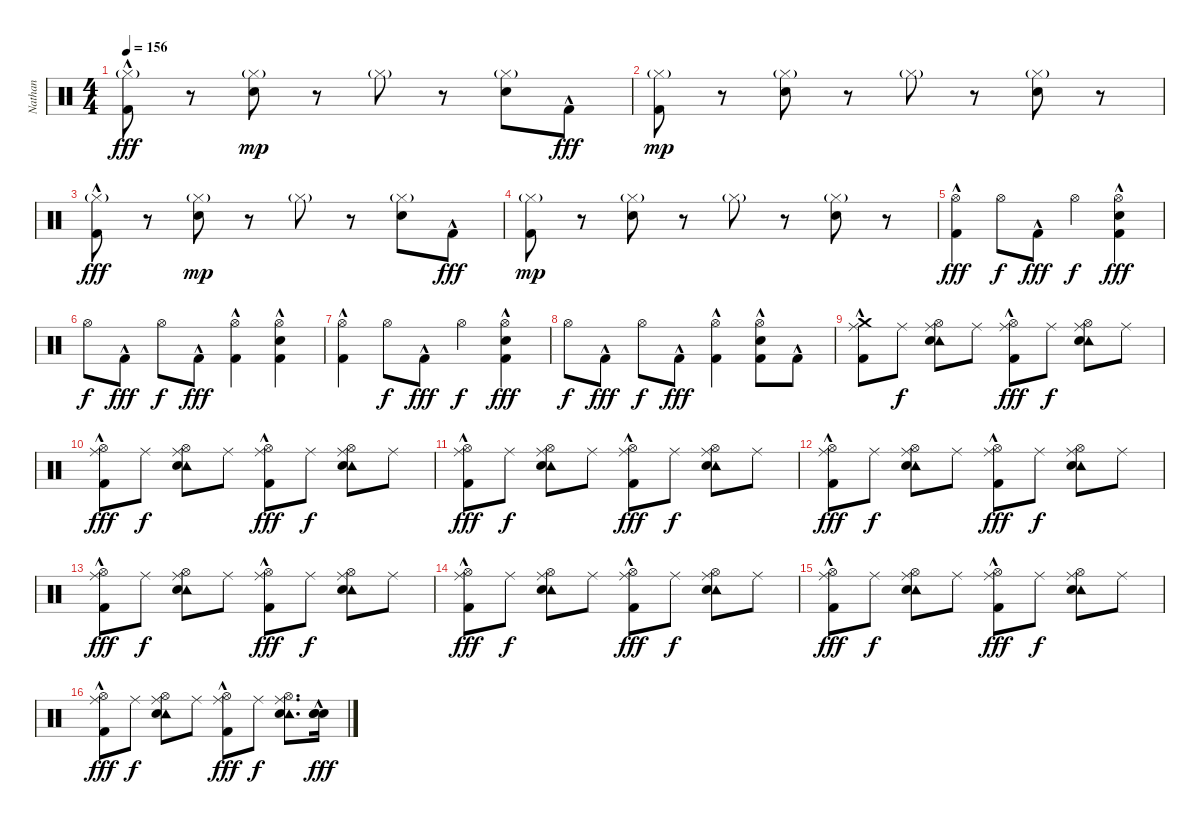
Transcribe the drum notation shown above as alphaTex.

\track ("Nathan" "Nathan") {instrument percussion}
\staff {score}
\articulation defaults
\ts (4 4)
\tempo 156
\clef neutral
\ks c
("Hi-Hat (closed)"{g} "Kick (hit) 2"{hac}).8{dy fff} r.8 ("Hi-Hat (closed)"{g} "Snare (hit) 2").8{dy mp} r.8 "Hi-Hat (closed)"{g}.8 r.8 ("Hi-Hat (closed)"{g} "Snare (hit) 2").8 "Kick (hit) 2"{hac}.8{dy fff} |
("Hi-Hat (closed)"{g} "Kick (hit) 2").8{dy mp} r.8 ("Hi-Hat (closed)"{g} "Snare (hit) 2").8 r.8 "Hi-Hat (closed)"{g}.8 r.8 ("Hi-Hat (closed)"{g} "Snare (hit) 2").8 r.8 |
("Hi-Hat (closed)"{g} "Kick (hit) 2"{hac}).8{dy fff} r.8 ("Hi-Hat (closed)"{g} "Snare (hit) 2").8{dy mp} r.8 "Hi-Hat (closed)"{g}.8 r.8 ("Hi-Hat (closed)"{g} "Snare (hit) 2").8 "Kick (hit) 2"{hac}.8{dy fff} |
("Hi-Hat (closed)"{g} "Kick (hit) 2").8{dy mp} r.8 ("Hi-Hat (closed)"{g} "Snare (hit) 2").8 r.8 "Hi-Hat (closed)"{g}.8 r.8 ("Hi-Hat (closed)"{g} "Snare (hit) 2").8 r.8 |
("Hi-Hat (open)" "Kick (hit) 2"{hac}).4{dy fff} "Hi-Hat (open)".8{dy f} "Kick (hit) 2"{hac}.8{dy fff} "Hi-Hat (open)".4{dy f} ("Hi-Hat (open)" "Snare (hit) 2"{hac} "Kick (hit) 2"{hac}).4{dy fff} |
"Hi-Hat (open)".8{dy f} "Kick (hit) 2"{hac}.8{dy fff} "Hi-Hat (open)".8{dy f} "Kick (hit) 2"{hac}.8{dy fff} ("Hi-Hat (open)" "Kick (hit) 2"{hac}).4 ("Hi-Hat (open)" "Snare (hit) 2"{hac} "Kick (hit) 2"{hac}).4 |
("Hi-Hat (open)" "Kick (hit) 2"{hac}).4 "Hi-Hat (open)".8{dy f} "Kick (hit) 2"{hac}.8{dy fff} "Hi-Hat (open)".4{dy f} ("Hi-Hat (open)" "Snare (hit) 2"{hac} "Kick (hit) 2"{hac}).4{dy fff} |
"Hi-Hat (open)".8{dy f} "Kick (hit) 2"{hac}.8{dy fff} "Hi-Hat (open)".8{dy f} "Kick (hit) 2"{hac}.8{dy fff} ("Hi-Hat (open)" "Kick (hit) 2"{hac}).4 ("Hi-Hat (open)" "Snare (hit) 2"{hac} "Kick (hit) 2"{hac}).8 "Kick (hit) 2"{hac}.8 |
("Crash medium (hit)" "Ride (middle)" "Kick (hit) 2"{hac}).8 "Ride (middle)".8{dy f} ("Hi-Hat (open)" "Ride (middle)" "Tambourine (hit)" "Snare (hit) 2").8 "Ride (middle)".8 ("Hi-Hat (open)" "Ride (middle)" "Kick (hit) 2"{hac}).8{dy fff} "Ride (middle)".8{dy f} ("Hi-Hat (open)" "Ride (middle)" "Tambourine (hit)" "Snare (hit) 2").8 "Ride (middle)".8 |
("Hi-Hat (open)" "Ride (middle)" "Kick (hit) 2"{hac}).8{dy fff} "Ride (middle)".8{dy f} ("Hi-Hat (open)" "Ride (middle)" "Tambourine (hit)" "Snare (hit) 2").8 "Ride (middle)".8 ("Hi-Hat (open)" "Ride (middle)" "Kick (hit) 2"{hac}).8{dy fff} "Ride (middle)".8{dy f} ("Hi-Hat (open)" "Ride (middle)" "Tambourine (hit)" "Snare (hit) 2").8 "Ride (middle)".8 |
("Hi-Hat (open)" "Ride (middle)" "Kick (hit) 2"{hac}).8{dy fff} "Ride (middle)".8{dy f} ("Hi-Hat (open)" "Ride (middle)" "Tambourine (hit)" "Snare (hit) 2").8 "Ride (middle)".8 ("Hi-Hat (open)" "Ride (middle)" "Kick (hit) 2"{hac}).8{dy fff} "Ride (middle)".8{dy f} ("Hi-Hat (open)" "Ride (middle)" "Tambourine (hit)" "Snare (hit) 2").8 "Ride (middle)".8 |
("Hi-Hat (open)" "Ride (middle)" "Kick (hit) 2"{hac}).8{dy fff} "Ride (middle)".8{dy f} ("Hi-Hat (open)" "Ride (middle)" "Tambourine (hit)" "Snare (hit) 2").8 "Ride (middle)".8 ("Hi-Hat (open)" "Ride (middle)" "Kick (hit) 2"{hac}).8{dy fff} "Ride (middle)".8{dy f} ("Hi-Hat (open)" "Ride (middle)" "Tambourine (hit)" "Snare (hit) 2").8 "Ride (middle)".8 |
("Hi-Hat (open)" "Ride (middle)" "Kick (hit) 2"{hac}).8{dy fff} "Ride (middle)".8{dy f} ("Hi-Hat (open)" "Ride (middle)" "Tambourine (hit)" "Snare (hit) 2").8 "Ride (middle)".8 ("Hi-Hat (open)" "Ride (middle)" "Kick (hit) 2"{hac}).8{dy fff} "Ride (middle)".8{dy f} ("Hi-Hat (open)" "Ride (middle)" "Tambourine (hit)" "Snare (hit) 2").8 "Ride (middle)".8 |
("Hi-Hat (open)" "Ride (middle)" "Kick (hit) 2"{hac}).8{dy fff} "Ride (middle)".8{dy f} ("Hi-Hat (open)" "Ride (middle)" "Tambourine (hit)" "Snare (hit) 2").8 "Ride (middle)".8 ("Hi-Hat (open)" "Ride (middle)" "Kick (hit) 2"{hac}).8{dy fff} "Ride (middle)".8{dy f} ("Hi-Hat (open)" "Ride (middle)" "Tambourine (hit)" "Snare (hit) 2").8 "Ride (middle)".8 |
("Hi-Hat (open)" "Ride (middle)" "Kick (hit) 2"{hac}).8{dy fff} "Ride (middle)".8{dy f} ("Hi-Hat (open)" "Ride (middle)" "Tambourine (hit)" "Snare (hit) 2").8 "Ride (middle)".8 ("Hi-Hat (open)" "Ride (middle)" "Kick (hit) 2"{hac}).8{dy fff} "Ride (middle)".8{dy f} ("Hi-Hat (open)" "Ride (middle)" "Tambourine (hit)" "Snare (hit) 2").8 "Ride (middle)".8 |
("Hi-Hat (open)" "Ride (middle)" "Kick (hit) 2"{hac}).8{dy fff} "Ride (middle)".8{dy f} ("Hi-Hat (open)" "Ride (middle)" "Tambourine (hit)" "Snare (hit) 2").8 "Ride (middle)".8 ("Hi-Hat (open)" "Ride (middle)" "Kick (hit) 2"{hac}).8{dy fff} "Ride (middle)".8{dy f} ("Hi-Hat (open)" "Ride (middle)" "Tambourine (hit)" "Snare (hit) 2").8{d} ("Electric Snare (hit)"{hac} "Snare (hit) 2"{hac} "Electric Snare (hit)"{hac}).16{dy fff}
